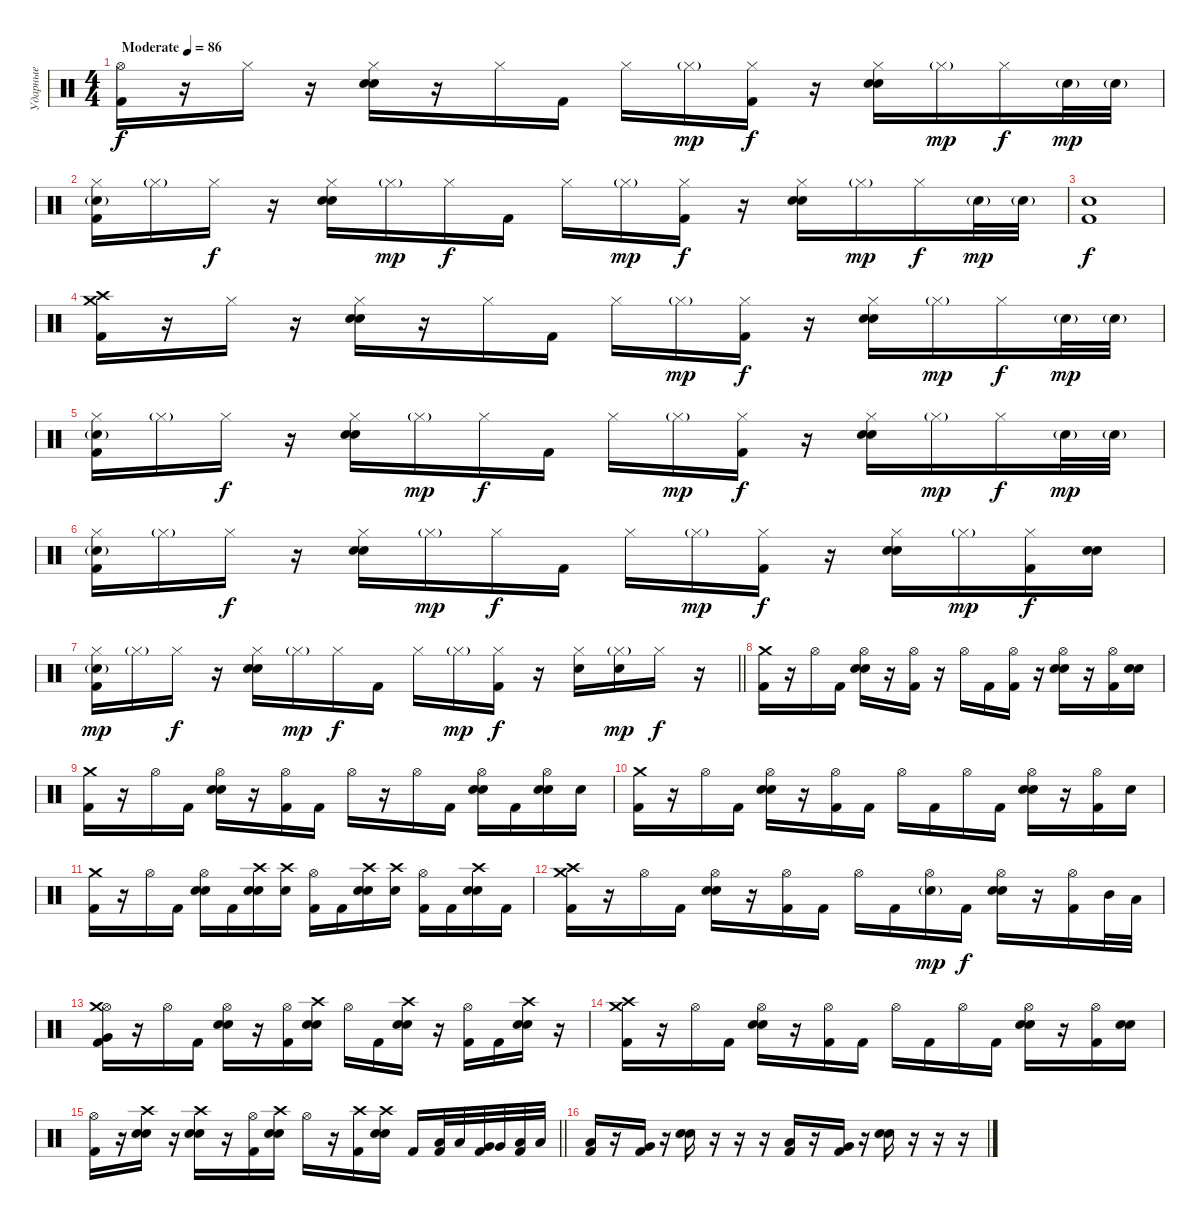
\track ("Ударные" "Ударные") {instrument percussion}
\staff {score}
\articulation defaults
\ts (4 4)
\tempo (86 "Moderate")
\clef neutral
\ks c
("Hi-Hat (open)" "Kick (hit) 2").16{dy f} r.16 "Hi-Hat (closed)".16 r.16 ("Hi-Hat (closed)" "Snare (hit) 2" "Electric Snare (hit)").16 r.16 "Hi-Hat (closed)".16 "Kick (hit) 2".16 "Hi-Hat (closed)".16 "Hi-Hat (closed)"{g}.16{dy mp} ("Hi-Hat (closed)" "Kick (hit) 2").16{dy f} r.16 ("Hi-Hat (closed)" "Snare (hit) 2" "Electric Snare (hit)").16 "Hi-Hat (closed)"{g}.16{dy mp} "Hi-Hat (closed)".16{dy f} "Snare (hit) 2"{g}.32{dy mp} "Snare (hit) 2"{g}.32 |
("Hi-Hat (closed)" "Snare (hit) 2"{g} "Kick (hit) 2").16 "Hi-Hat (closed)"{g}.16 "Hi-Hat (closed)".16{dy f} r.16 ("Hi-Hat (closed)" "Snare (hit) 2" "Electric Snare (hit)").16 "Hi-Hat (closed)"{g}.16{dy mp} "Hi-Hat (closed)".16{dy f} "Kick (hit) 2".16 "Hi-Hat (closed)".16 "Hi-Hat (closed)"{g}.16{dy mp} ("Hi-Hat (closed)" "Kick (hit) 2").16{dy f} r.16 ("Hi-Hat (closed)" "Snare (hit) 2" "Electric Snare (hit)").16 "Hi-Hat (closed)"{g}.16{dy mp} "Hi-Hat (closed)".16{dy f} "Snare (hit) 2"{g}.32{dy mp} "Snare (hit) 2"{g}.32 |
("Snare (hit) 2" "Kick (hit) 2").1{dy f} |
("Crash medium (hit)" "Crash high (hit)" "Kick (hit) 2").16 r.16 "Hi-Hat (closed)".16 r.16 ("Hi-Hat (closed)" "Snare (hit) 2" "Electric Snare (hit)").16 r.16 "Hi-Hat (closed)".16 "Kick (hit) 2".16 "Hi-Hat (closed)".16 "Hi-Hat (closed)"{g}.16{dy mp} ("Hi-Hat (closed)" "Kick (hit) 2").16{dy f} r.16 ("Hi-Hat (closed)" "Snare (hit) 2" "Electric Snare (hit)").16 "Hi-Hat (closed)"{g}.16{dy mp} "Hi-Hat (closed)".16{dy f} "Snare (hit) 2"{g}.32{dy mp} "Snare (hit) 2"{g}.32 |
("Hi-Hat (closed)" "Snare (hit) 2"{g} "Kick (hit) 2").16 "Hi-Hat (closed)"{g}.16 "Hi-Hat (closed)".16{dy f} r.16 ("Hi-Hat (closed)" "Snare (hit) 2" "Electric Snare (hit)").16 "Hi-Hat (closed)"{g}.16{dy mp} "Hi-Hat (closed)".16{dy f} "Kick (hit) 2".16 "Hi-Hat (closed)".16 "Hi-Hat (closed)"{g}.16{dy mp} ("Hi-Hat (closed)" "Kick (hit) 2").16{dy f} r.16 ("Hi-Hat (closed)" "Snare (hit) 2" "Electric Snare (hit)").16 "Hi-Hat (closed)"{g}.16{dy mp} "Hi-Hat (closed)".16{dy f} "Snare (hit) 2"{g}.32{dy mp} "Snare (hit) 2"{g}.32 |
("Hi-Hat (closed)" "Snare (hit) 2"{g} "Kick (hit) 2").16 "Hi-Hat (closed)"{g}.16 "Hi-Hat (closed)".16{dy f} r.16 ("Hi-Hat (closed)" "Snare (hit) 2" "Electric Snare (hit)").16 "Hi-Hat (closed)"{g}.16{dy mp} "Hi-Hat (closed)".16{dy f} "Kick (hit) 2".16 "Hi-Hat (closed)".16 "Hi-Hat (closed)"{g}.16{dy mp} ("Hi-Hat (closed)" "Kick (hit) 2").16{dy f} r.16 ("Hi-Hat (closed)" "Snare (hit) 2" "Electric Snare (hit)").16 "Hi-Hat (closed)"{g}.16{dy mp} ("Hi-Hat (closed)" "Kick (hit) 2").16{dy f} ("Snare (hit) 2" "Electric Snare (hit)").16 |
\barLineRight lightlight
("Hi-Hat (closed)" "Snare (hit) 2"{g} "Kick (hit) 2").16{dy mp} "Hi-Hat (closed)"{g}.16 "Hi-Hat (closed)".16{dy f} r.16 ("Hi-Hat (closed)" "Snare (hit) 2" "Electric Snare (hit)").16 "Hi-Hat (closed)"{g}.16{dy mp} "Hi-Hat (closed)".16{dy f} "Kick (hit) 2".16 "Hi-Hat (closed)".16 "Hi-Hat (closed)"{g}.16{dy mp} ("Hi-Hat (closed)" "Kick (hit) 2").16{dy f} r.16 ("Hi-Hat (closed)" "Electric Snare (hit)").16 ("Hi-Hat (closed)"{g} "Snare (hit) 2").16{dy mp} "Hi-Hat (closed)".16{dy f} r.16 |
\section ("" "")
("Crash medium (hit)" "Kick (hit) 2").16 r.16 "Hi-Hat (open)".16 "Kick (hit) 2".16 ("Hi-Hat (open)" "Snare (hit) 2" "Electric Snare (hit)").16 r.16 ("Hi-Hat (open)" "Kick (hit) 2").16 r.16 "Hi-Hat (open)".16 "Kick (hit) 2".16 ("Hi-Hat (open)" "Kick (hit) 2").16 r.16 ("Hi-Hat (open)" "Snare (hit) 2" "Electric Snare (hit)").16 r.16 ("Hi-Hat (open)" "Kick (hit) 2").16 ("Snare (hit) 2" "Electric Snare (hit)").16 |
("Crash medium (hit)" "Kick (hit) 2").16 r.16 "Hi-Hat (open)".16 "Kick (hit) 2".16 ("Hi-Hat (open)" "Snare (hit) 2" "Electric Snare (hit)").16 r.16 ("Hi-Hat (open)" "Kick (hit) 2").16 "Kick (hit) 2".16 "Hi-Hat (open)".16 r.16 "Hi-Hat (open)".16 "Kick (hit) 2".16 ("Hi-Hat (open)" "Snare (hit) 2" "Electric Snare (hit)").16 "Kick (hit) 2".16 ("Hi-Hat (open)" "Snare (hit) 2" "Electric Snare (hit)").16 "Electric Snare (hit)".16 |
("Crash medium (hit)" "Kick (hit) 2").16 r.16 "Hi-Hat (open)".16 "Kick (hit) 2".16 ("Hi-Hat (open)" "Snare (hit) 2" "Electric Snare (hit)").16 r.16 ("Hi-Hat (open)" "Kick (hit) 2").16 "Kick (hit) 2".16 "Hi-Hat (open)".16 "Kick (hit) 2".16 "Hi-Hat (open)".16 "Kick (hit) 2".16 ("Hi-Hat (open)" "Snare (hit) 2" "Electric Snare (hit)").16 r.16 ("Hi-Hat (open)" "Kick (hit) 2").16 "Electric Snare (hit)".16 |
("Crash medium (hit)" "Kick (hit) 2").16 r.16 "Hi-Hat (open)".16 "Kick (hit) 2".16 ("Hi-Hat (open)" "Snare (hit) 2" "Electric Snare (hit)").16 "Kick (hit) 2".16 ("Crash high (hit)" "Snare (hit) 2" "Electric Snare (hit)").16 ("Crash high (hit)" "Electric Snare (hit)").16 ("Hi-Hat (open)" "Kick (hit) 2").16 "Kick (hit) 2".16 ("Crash high (hit)" "Snare (hit) 2" "Electric Snare (hit)").16 ("Crash high (hit)" "Electric Snare (hit)").16 ("Hi-Hat (open)" "Kick (hit) 2").16 "Kick (hit) 2".16 ("Crash high (hit)" "Snare (hit) 2" "Electric Snare (hit)").16 "Kick (hit) 2".16 |
("Crash medium (hit)" "Crash high (hit)" "Kick (hit) 2").16 r.16 "Hi-Hat (open)".16 "Kick (hit) 2".16 ("Hi-Hat (open)" "Snare (hit) 2" "Electric Snare (hit)").16 r.16 ("Hi-Hat (open)" "Kick (hit) 2").16 "Kick (hit) 2".16 "Hi-Hat (open)".16 "Kick (hit) 2".16 ("Hi-Hat (open)" "Snare (hit) 2"{g}).16{dy mp} "Kick (hit) 2".16{dy f} ("Hi-Hat (open)" "Snare (hit) 2" "Electric Snare (hit)").16 r.16 ("Hi-Hat (open)" "Kick (hit) 2").16 "Mid Tom (hit)".32 "Low Tom (hit)".32 |
("Hi-Hat (open)" "Crash medium (hit)" "Very Low Tom (hit)" "Kick (hit) 2").16 r.16 "Hi-Hat (open)".16 "Kick (hit) 2".16 ("Hi-Hat (open)" "Snare (hit) 2" "Electric Snare (hit)").16 r.16 ("Hi-Hat (open)" "Kick (hit) 2").16 ("Crash high (hit)" "Snare (hit) 2" "Electric Snare (hit)").16 "Hi-Hat (open)".16 "Kick (hit) 2".16 ("Crash high (hit)" "Snare (hit) 2" "Electric Snare (hit)").16 r.16 ("Hi-Hat (open)" "Kick (hit) 2").16 "Kick (hit) 2".16 ("Crash high (hit)" "Snare (hit) 2" "Electric Snare (hit)").16 r.16 |
("Crash medium (hit)" "Crash high (hit)" "Kick (hit) 2").16 r.16 "Hi-Hat (open)".16 "Kick (hit) 2".16 ("Hi-Hat (open)" "Snare (hit) 2" "Electric Snare (hit)").16 r.16 ("Hi-Hat (open)" "Kick (hit) 2").16 "Kick (hit) 2".16 "Hi-Hat (open)".16 "Kick (hit) 2".16 "Hi-Hat (open)".16 "Kick (hit) 2".16 ("Hi-Hat (open)" "Snare (hit) 2" "Electric Snare (hit)").16 r.16 ("Hi-Hat (open)" "Kick (hit) 2").16 ("Snare (hit) 2" "Electric Snare (hit)").16 |
\barLineRight lightlight
("Hi-Hat (open)" "Kick (hit) 2").16 r.16 ("Crash high (hit)" "Snare (hit) 2" "Electric Snare (hit)").16 r.16 ("Crash high (hit)" "Snare (hit) 2" "Electric Snare (hit)").16 r.16 ("Hi-Hat (open)" "Kick (hit) 2").16 ("Crash high (hit)" "Snare (hit) 2" "Electric Snare (hit)").16 "Hi-Hat (open)".16 r.16 ("Crash high (hit)" "Kick (hit) 2").16 ("Crash high (hit)" "Snare (hit) 2" "Electric Snare (hit)").16 "Kick (hit) 2".16 ("Low Tom (hit)" "Kick (hit) 2").32 "Low Tom (hit)".32 ("Very Low Tom (hit)" "Kick (hit) 2").32 "Very Low Tom (hit)".32 ("Low Floor Tom (hit)" "Kick (hit) 2").32 "Low Floor Tom (hit)".32 |
\section ("" "")
("Low Tom (hit)" "Kick (hit) 2").16 r.16 ("Very Low Tom (hit)" "Kick (hit) 2").16 r.16 ("Snare (hit) 2" "Electric Snare (hit)").16 r.16 r.16 r.16 ("Low Tom (hit)" "Kick (hit) 2").16 r.16 ("Very Low Tom (hit)" "Kick (hit) 2").16 r.16 ("Snare (hit) 2" "Electric Snare (hit)").16 r.16 r.16 r.16
